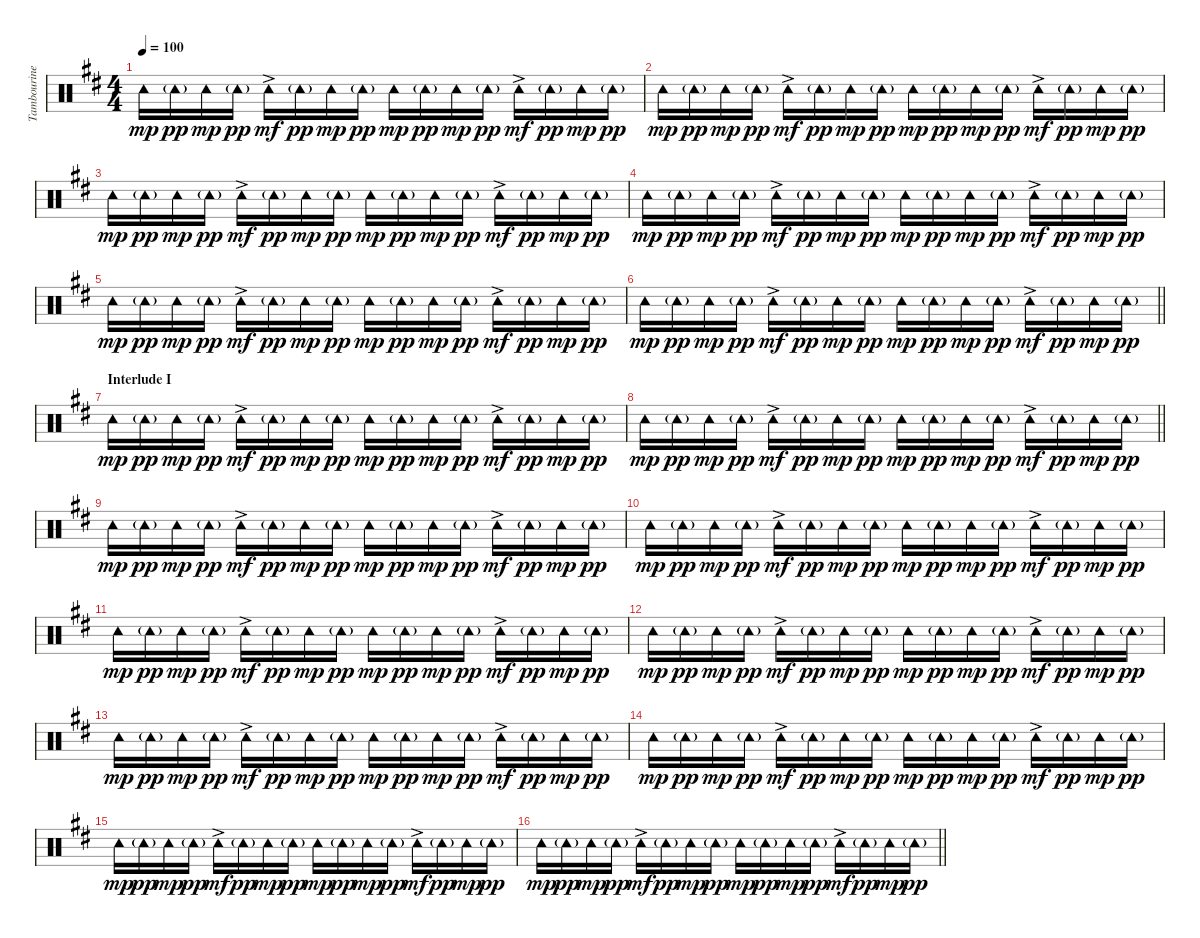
\track ("Tambourine" "Tambourine") {instrument percussion}
\staff {score}
\articulation defaults
\ts (4 4)
\tempo 100
\clef neutral
\ks d "Tambourine (hit)".16{dy mp} "Tambourine (hit)"{g}.16{dy pp} "Tambourine (hit)".16{dy mp} "Tambourine (hit)"{g}.16{dy pp} "Tambourine (hit)"{ac}.16{dy mf} "Tambourine (hit)"{g}.16{dy pp} "Tambourine (hit)".16{dy mp} "Tambourine (hit)"{g}.16{dy pp} "Tambourine (hit)".16{dy mp} "Tambourine (hit)"{g}.16{dy pp} "Tambourine (hit)".16{dy mp} "Tambourine (hit)"{g}.16{dy pp} "Tambourine (hit)"{ac}.16{dy mf} "Tambourine (hit)"{g}.16{dy pp} "Tambourine (hit)".16{dy mp} "Tambourine (hit)"{g}.16{dy pp}
|
"Tambourine (hit)".16{dy mp} "Tambourine (hit)"{g}.16{dy pp} "Tambourine (hit)".16{dy mp} "Tambourine (hit)"{g}.16{dy pp} "Tambourine (hit)"{ac}.16{dy mf} "Tambourine (hit)"{g}.16{dy pp} "Tambourine (hit)".16{dy mp} "Tambourine (hit)"{g}.16{dy pp} "Tambourine (hit)".16{dy mp} "Tambourine (hit)"{g}.16{dy pp} "Tambourine (hit)".16{dy mp} "Tambourine (hit)"{g}.16{dy pp} "Tambourine (hit)"{ac}.16{dy mf} "Tambourine (hit)"{g}.16{dy pp} "Tambourine (hit)".16{dy mp} "Tambourine (hit)"{g}.16{dy pp} |
"Tambourine (hit)".16{dy mp} "Tambourine (hit)"{g}.16{dy pp} "Tambourine (hit)".16{dy mp} "Tambourine (hit)"{g}.16{dy pp} "Tambourine (hit)"{ac}.16{dy mf} "Tambourine (hit)"{g}.16{dy pp} "Tambourine (hit)".16{dy mp} "Tambourine (hit)"{g}.16{dy pp} "Tambourine (hit)".16{dy mp} "Tambourine (hit)"{g}.16{dy pp} "Tambourine (hit)".16{dy mp} "Tambourine (hit)"{g}.16{dy pp} "Tambourine (hit)"{ac}.16{dy mf} "Tambourine (hit)"{g}.16{dy pp} "Tambourine (hit)".16{dy mp} "Tambourine (hit)"{g}.16{dy pp} |
"Tambourine (hit)".16{dy mp} "Tambourine (hit)"{g}.16{dy pp} "Tambourine (hit)".16{dy mp} "Tambourine (hit)"{g}.16{dy pp} "Tambourine (hit)"{ac}.16{dy mf} "Tambourine (hit)"{g}.16{dy pp} "Tambourine (hit)".16{dy mp} "Tambourine (hit)"{g}.16{dy pp} "Tambourine (hit)".16{dy mp} "Tambourine (hit)"{g}.16{dy pp} "Tambourine (hit)".16{dy mp} "Tambourine (hit)"{g}.16{dy pp} "Tambourine (hit)"{ac}.16{dy mf} "Tambourine (hit)"{g}.16{dy pp} "Tambourine (hit)".16{dy mp} "Tambourine (hit)"{g}.16{dy pp} |
"Tambourine (hit)".16{dy mp} "Tambourine (hit)"{g}.16{dy pp} "Tambourine (hit)".16{dy mp} "Tambourine (hit)"{g}.16{dy pp} "Tambourine (hit)"{ac}.16{dy mf} "Tambourine (hit)"{g}.16{dy pp} "Tambourine (hit)".16{dy mp} "Tambourine (hit)"{g}.16{dy pp} "Tambourine (hit)".16{dy mp} "Tambourine (hit)"{g}.16{dy pp} "Tambourine (hit)".16{dy mp} "Tambourine (hit)"{g}.16{dy pp} "Tambourine (hit)"{ac}.16{dy mf} "Tambourine (hit)"{g}.16{dy pp} "Tambourine (hit)".16{dy mp} "Tambourine (hit)"{g}.16{dy pp} |
\barLineRight lightlight "Tambourine (hit)".16{dy mp} "Tambourine (hit)"{g}.16{dy pp} "Tambourine (hit)".16{dy mp} "Tambourine (hit)"{g}.16{dy pp} "Tambourine (hit)"{ac}.16{dy mf} "Tambourine (hit)"{g}.16{dy pp} "Tambourine (hit)".16{dy mp} "Tambourine (hit)"{g}.16{dy pp} "Tambourine (hit)".16{dy mp} "Tambourine (hit)"{g}.16{dy pp} "Tambourine (hit)".16{dy mp} "Tambourine (hit)"{g}.16{dy pp} "Tambourine (hit)"{ac}.16{dy mf} "Tambourine (hit)"{g}.16{dy pp} "Tambourine (hit)".16{dy mp} "Tambourine (hit)"{g}.16{dy pp}
|
\section ("" "Interlude I")
"Tambourine (hit)".16{dy mp} "Tambourine (hit)"{g}.16{dy pp} "Tambourine (hit)".16{dy mp} "Tambourine (hit)"{g}.16{dy pp} "Tambourine (hit)"{ac}.16{dy mf} "Tambourine (hit)"{g}.16{dy pp} "Tambourine (hit)".16{dy mp} "Tambourine (hit)"{g}.16{dy pp} "Tambourine (hit)".16{dy mp} "Tambourine (hit)"{g}.16{dy pp} "Tambourine (hit)".16{dy mp} "Tambourine (hit)"{g}.16{dy pp} "Tambourine (hit)"{ac}.16{dy mf} "Tambourine (hit)"{g}.16{dy pp} "Tambourine (hit)".16{dy mp} "Tambourine (hit)"{g}.16{dy pp} |
\barLineRight lightlight "Tambourine (hit)".16{dy mp} "Tambourine (hit)"{g}.16{dy pp} "Tambourine (hit)".16{dy mp} "Tambourine (hit)"{g}.16{dy pp} "Tambourine (hit)"{ac}.16{dy mf} "Tambourine (hit)"{g}.16{dy pp} "Tambourine (hit)".16{dy mp} "Tambourine (hit)"{g}.16{dy pp} "Tambourine (hit)".16{dy mp} "Tambourine (hit)"{g}.16{dy pp} "Tambourine (hit)".16{dy mp} "Tambourine (hit)"{g}.16{dy pp} "Tambourine (hit)"{ac}.16{dy mf} "Tambourine (hit)"{g}.16{dy pp} "Tambourine (hit)".16{dy mp} "Tambourine (hit)"{g}.16{dy pp}
|
"Tambourine (hit)".16{dy mp} "Tambourine (hit)"{g}.16{dy pp} "Tambourine (hit)".16{dy mp} "Tambourine (hit)"{g}.16{dy pp} "Tambourine (hit)"{ac}.16{dy mf} "Tambourine (hit)"{g}.16{dy pp} "Tambourine (hit)".16{dy mp} "Tambourine (hit)"{g}.16{dy pp} "Tambourine (hit)".16{dy mp} "Tambourine (hit)"{g}.16{dy pp} "Tambourine (hit)".16{dy mp} "Tambourine (hit)"{g}.16{dy pp} "Tambourine (hit)"{ac}.16{dy mf} "Tambourine (hit)"{g}.16{dy pp} "Tambourine (hit)".16{dy mp} "Tambourine (hit)"{g}.16{dy pp} |
"Tambourine (hit)".16{dy mp} "Tambourine (hit)"{g}.16{dy pp} "Tambourine (hit)".16{dy mp} "Tambourine (hit)"{g}.16{dy pp} "Tambourine (hit)"{ac}.16{dy mf} "Tambourine (hit)"{g}.16{dy pp} "Tambourine (hit)".16{dy mp} "Tambourine (hit)"{g}.16{dy pp} "Tambourine (hit)".16{dy mp} "Tambourine (hit)"{g}.16{dy pp} "Tambourine (hit)".16{dy mp} "Tambourine (hit)"{g}.16{dy pp} "Tambourine (hit)"{ac}.16{dy mf} "Tambourine (hit)"{g}.16{dy pp} "Tambourine (hit)".16{dy mp} "Tambourine (hit)"{g}.16{dy pp} |
"Tambourine (hit)".16{dy mp} "Tambourine (hit)"{g}.16{dy pp} "Tambourine (hit)".16{dy mp} "Tambourine (hit)"{g}.16{dy pp} "Tambourine (hit)"{ac}.16{dy mf} "Tambourine (hit)"{g}.16{dy pp} "Tambourine (hit)".16{dy mp} "Tambourine (hit)"{g}.16{dy pp} "Tambourine (hit)".16{dy mp} "Tambourine (hit)"{g}.16{dy pp} "Tambourine (hit)".16{dy mp} "Tambourine (hit)"{g}.16{dy pp} "Tambourine (hit)"{ac}.16{dy mf} "Tambourine (hit)"{g}.16{dy pp} "Tambourine (hit)".16{dy mp} "Tambourine (hit)"{g}.16{dy pp} |
"Tambourine (hit)".16{dy mp} "Tambourine (hit)"{g}.16{dy pp} "Tambourine (hit)".16{dy mp} "Tambourine (hit)"{g}.16{dy pp} "Tambourine (hit)"{ac}.16{dy mf} "Tambourine (hit)"{g}.16{dy pp} "Tambourine (hit)".16{dy mp} "Tambourine (hit)"{g}.16{dy pp} "Tambourine (hit)".16{dy mp} "Tambourine (hit)"{g}.16{dy pp} "Tambourine (hit)".16{dy mp} "Tambourine (hit)"{g}.16{dy pp} "Tambourine (hit)"{ac}.16{dy mf} "Tambourine (hit)"{g}.16{dy pp} "Tambourine (hit)".16{dy mp} "Tambourine (hit)"{g}.16{dy pp} |
"Tambourine (hit)".16{dy mp} "Tambourine (hit)"{g}.16{dy pp} "Tambourine (hit)".16{dy mp} "Tambourine (hit)"{g}.16{dy pp} "Tambourine (hit)"{ac}.16{dy mf} "Tambourine (hit)"{g}.16{dy pp} "Tambourine (hit)".16{dy mp} "Tambourine (hit)"{g}.16{dy pp} "Tambourine (hit)".16{dy mp} "Tambourine (hit)"{g}.16{dy pp} "Tambourine (hit)".16{dy mp} "Tambourine (hit)"{g}.16{dy pp} "Tambourine (hit)"{ac}.16{dy mf} "Tambourine (hit)"{g}.16{dy pp} "Tambourine (hit)".16{dy mp} "Tambourine (hit)"{g}.16{dy pp} |
"Tambourine (hit)".16{dy mp} "Tambourine (hit)"{g}.16{dy pp} "Tambourine (hit)".16{dy mp} "Tambourine (hit)"{g}.16{dy pp} "Tambourine (hit)"{ac}.16{dy mf} "Tambourine (hit)"{g}.16{dy pp} "Tambourine (hit)".16{dy mp} "Tambourine (hit)"{g}.16{dy pp} "Tambourine (hit)".16{dy mp} "Tambourine (hit)"{g}.16{dy pp} "Tambourine (hit)".16{dy mp} "Tambourine (hit)"{g}.16{dy pp} "Tambourine (hit)"{ac}.16{dy mf} "Tambourine (hit)"{g}.16{dy pp} "Tambourine (hit)".16{dy mp} "Tambourine (hit)"{g}.16{dy pp} |
"Tambourine (hit)".16{dy mp} "Tambourine (hit)"{g}.16{dy pp} "Tambourine (hit)".16{dy mp} "Tambourine (hit)"{g}.16{dy pp} "Tambourine (hit)"{ac}.16{dy mf} "Tambourine (hit)"{g}.16{dy pp} "Tambourine (hit)".16{dy mp} "Tambourine (hit)"{g}.16{dy pp} "Tambourine (hit)".16{dy mp} "Tambourine (hit)"{g}.16{dy pp} "Tambourine (hit)".16{dy mp} "Tambourine (hit)"{g}.16{dy pp} "Tambourine (hit)"{ac}.16{dy mf} "Tambourine (hit)"{g}.16{dy pp} "Tambourine (hit)".16{dy mp} "Tambourine (hit)"{g}.16{dy pp} |
\barLineRight lightlight "Tambourine (hit)".16{dy mp} "Tambourine (hit)"{g}.16{dy pp} "Tambourine (hit)".16{dy mp} "Tambourine (hit)"{g}.16{dy pp} "Tambourine (hit)"{ac}.16{dy mf} "Tambourine (hit)"{g}.16{dy pp} "Tambourine (hit)".16{dy mp} "Tambourine (hit)"{g}.16{dy pp} "Tambourine (hit)".16{dy mp} "Tambourine (hit)"{g}.16{dy pp} "Tambourine (hit)".16{dy mp} "Tambourine (hit)"{g}.16{dy pp} "Tambourine (hit)"{ac}.16{dy mf} "Tambourine (hit)"{g}.16{dy pp} "Tambourine (hit)".16{dy mp} "Tambourine (hit)"{g}.16{dy pp}
